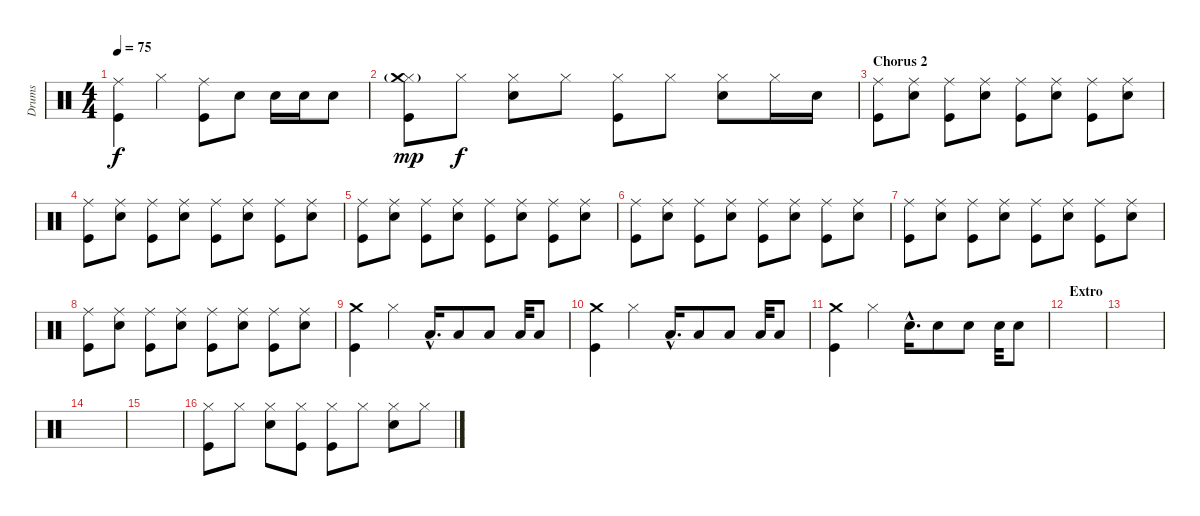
\track ("Drums" "Drums") {instrument percussion}
\staff {score}
\articulation defaults
\ts (4 4)
\tempo 75
\clef neutral
\ks c
("Ride (middle)" "Kick (hit)").4{dy f} "Hi-Hat (closed)".4 ("Ride (middle)" "Kick (hit)").8 "Snare (hit) 2".8 "Snare (hit) 2".16 "Snare (hit) 2".16 "Snare (hit) 2".8 |
("Hi-Hat (closed)" "Crash medium (hit)"{g} "Kick (hit)").8{dy mp} "Hi-Hat (closed)".8{dy f} ("Hi-Hat (closed)" "Snare (hit) 2").8 "Hi-Hat (closed)".8 ("Hi-Hat (closed)" "Kick (hit)").8 "Hi-Hat (closed)".8 ("Hi-Hat (closed)" "Snare (hit) 2").8 "Hi-Hat (closed)".16 "Snare (hit) 2".16 |
\section ("" "Chorus 2")
("Ride (middle)" "Kick (hit)").8 ("Ride (middle)" "Snare (hit) 2").8 ("Ride (middle)" "Kick (hit)").8 ("Ride (middle)" "Snare (hit) 2").8 ("Ride (middle)" "Kick (hit)").8 ("Ride (middle)" "Snare (hit) 2").8 ("Ride (middle)" "Kick (hit)").8 ("Ride (middle)" "Snare (hit) 2").8 |
("Ride (middle)" "Kick (hit)").8 ("Ride (middle)" "Snare (hit) 2").8 ("Ride (middle)" "Kick (hit)").8 ("Ride (middle)" "Snare (hit) 2").8 ("Ride (middle)" "Kick (hit)").8 ("Ride (middle)" "Snare (hit) 2").8 ("Ride (middle)" "Kick (hit)").8 ("Ride (middle)" "Snare (hit) 2").8 |
("Ride (middle)" "Kick (hit)").8 ("Ride (middle)" "Snare (hit) 2").8 ("Ride (middle)" "Kick (hit)").8 ("Ride (middle)" "Snare (hit) 2").8 ("Ride (middle)" "Kick (hit)").8 ("Ride (middle)" "Snare (hit) 2").8 ("Ride (middle)" "Kick (hit)").8 ("Ride (middle)" "Snare (hit) 2").8 |
("Ride (middle)" "Kick (hit)").8 ("Ride (middle)" "Snare (hit) 2").8 ("Ride (middle)" "Kick (hit)").8 ("Ride (middle)" "Snare (hit) 2").8 ("Ride (middle)" "Kick (hit)").8 ("Ride (middle)" "Snare (hit) 2").8 ("Ride (middle)" "Kick (hit)").8 ("Ride (middle)" "Snare (hit) 2").8 |
("Ride (middle)" "Kick (hit)").8 ("Ride (middle)" "Snare (hit) 2").8 ("Ride (middle)" "Kick (hit)").8 ("Ride (middle)" "Snare (hit) 2").8 ("Ride (middle)" "Kick (hit)").8 ("Ride (middle)" "Snare (hit) 2").8 ("Ride (middle)" "Kick (hit)").8 ("Ride (middle)" "Snare (hit) 2").8 |
("Ride (middle)" "Kick (hit)").8 ("Ride (middle)" "Snare (hit) 2").8 ("Ride (middle)" "Kick (hit)").8 ("Ride (middle)" "Snare (hit) 2").8 ("Ride (middle)" "Kick (hit)").8 ("Ride (middle)" "Snare (hit) 2").8 ("Ride (middle)" "Kick (hit)").8 ("Ride (middle)" "Snare (hit) 2").8 |
("Crash medium (hit)" "Kick (hit)").4 "Hi-Hat (closed)".4 "Low Tom (hit)"{hac}.16{d} "Low Tom (hit)".8 "Low Tom (hit)".8 "Low Tom (hit)".32 "Low Tom (hit)".8 |
("Crash medium (hit)" "Kick (hit)").4 "Hi-Hat (closed)".4 "Low Tom (hit)"{hac}.16{d} "Low Tom (hit)".8 "Low Tom (hit)".8 "Low Tom (hit)".32 "Low Tom (hit)".8 |
("Crash medium (hit)" "Kick (hit)").4 "Hi-Hat (closed)".4 "Snare (hit) 2"{hac}.16{d} "Snare (hit) 2".8 "Snare (hit) 2".8 "Snare (hit) 2".32 "Snare (hit) 2".8 |
\section ("" "Extro")
|
|
|
|
\section ("" "")
("Hi-Hat (closed)" "Kick (hit)").8 "Hi-Hat (closed)".8 ("Hi-Hat (closed)" "Snare (hit) 2").8 ("Hi-Hat (closed)" "Kick (hit)").8 ("Hi-Hat (closed)" "Kick (hit)").8 "Hi-Hat (closed)".8 ("Hi-Hat (closed)" "Snare (hit) 2").8 "Hi-Hat (closed)".8
